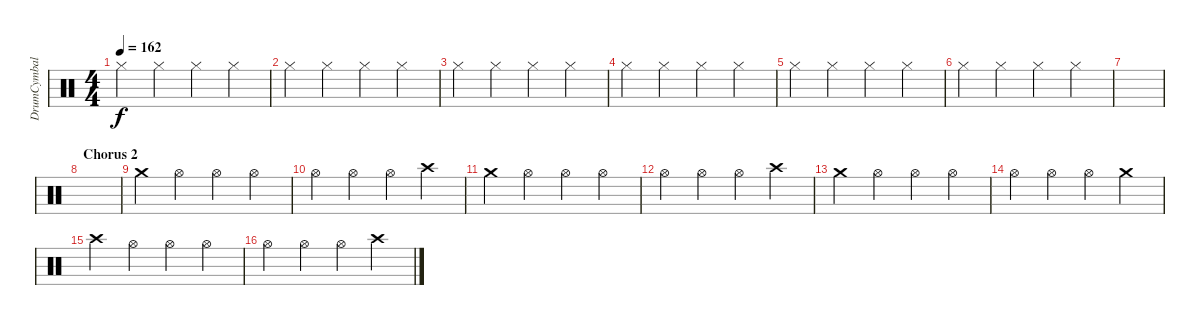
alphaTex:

\track ("DrumCymbal" "DrumCymbal") {instrument percussion}
\staff {score}
\articulation defaults
\ts (4 4)
\tempo 162
\clef neutral
\ks c "Hi-Hat (closed)".4{dy f} "Hi-Hat (closed)".4 "Hi-Hat (closed)".4 "Hi-Hat (closed)".4
|
"Hi-Hat (closed)".4 "Hi-Hat (closed)".4 "Hi-Hat (closed)".4 "Hi-Hat (closed)".4 |
"Hi-Hat (closed)".4 "Hi-Hat (closed)".4 "Hi-Hat (closed)".4 "Hi-Hat (closed)".4 |
"Hi-Hat (closed)".4 "Hi-Hat (closed)".4 "Hi-Hat (closed)".4 "Hi-Hat (closed)".4 |
"Hi-Hat (closed)".4 "Hi-Hat (closed)".4 "Hi-Hat (closed)".4 "Hi-Hat (closed)".4 |
"Hi-Hat (closed)".4 "Hi-Hat (closed)".4 "Hi-Hat (closed)".4 "Hi-Hat (closed)".4 |
|
\section ("" "Chorus 2")
|
"Crash medium (hit)".4 "Hi-Hat (open)".4 "Hi-Hat (open)".4 "Hi-Hat (open)".4 |
"Hi-Hat (open)".4 "Hi-Hat (open)".4 "Hi-Hat (open)".4 "Crash high (hit)".4 |
"Crash medium (hit)".4 "Hi-Hat (open)".4 "Hi-Hat (open)".4 "Hi-Hat (open)".4 |
"Hi-Hat (open)".4 "Hi-Hat (open)".4 "Hi-Hat (open)".4 "Crash high (hit)".4 |
"Crash medium (hit)".4 "Hi-Hat (open)".4 "Hi-Hat (open)".4 "Hi-Hat (open)".4 |
"Hi-Hat (open)".4 "Hi-Hat (open)".4 "Hi-Hat (open)".4 "Crash medium (hit)".4 |
"Crash high (hit)".4 "Hi-Hat (open)".4 "Hi-Hat (open)".4 "Hi-Hat (open)".4 |
"Hi-Hat (open)".4 "Hi-Hat (open)".4 "Hi-Hat (open)".4 "Crash high (hit)".4
